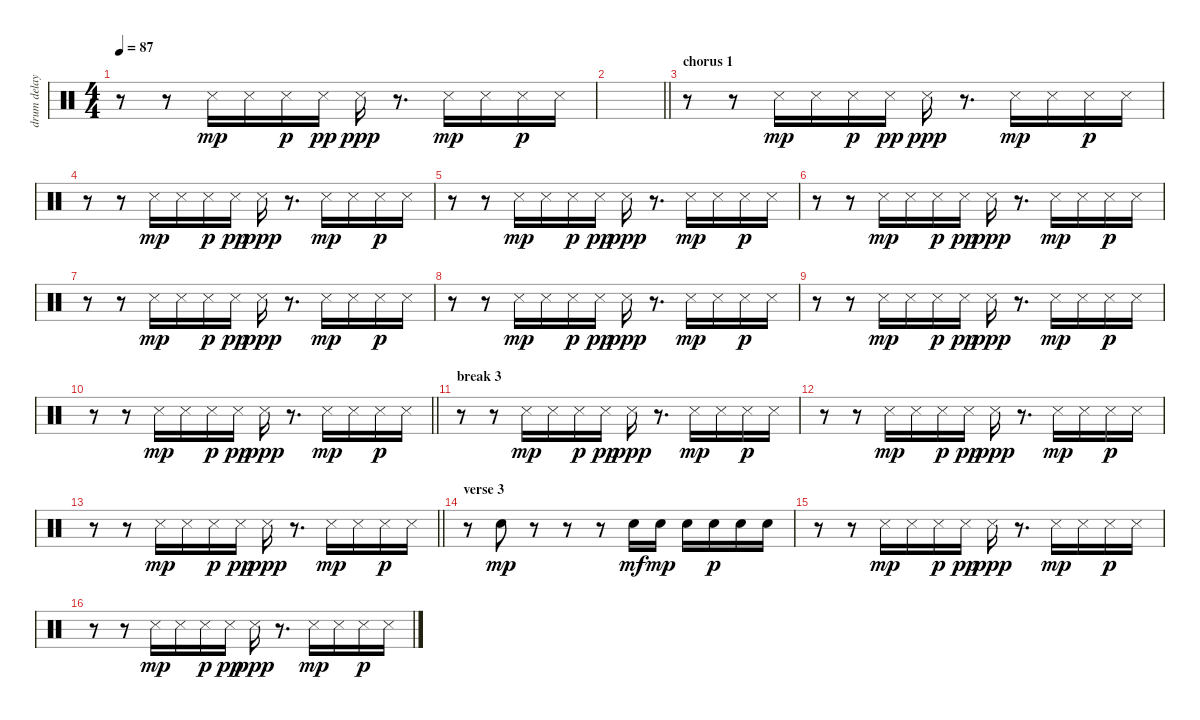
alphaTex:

\track ("drum delay" "drum delay") {instrument percussion}
\staff {score}
\articulation defaults
\ts (4 4)
\tempo 87
\clef neutral
\ks c
r.8{dy p} r.8 "Snare (side stick) 3".16{dy mp} "Snare (side stick) 3".16 "Snare (side stick) 3".16{dy p} "Snare (side stick) 3".16{dy pp} "Snare (side stick) 3".16{dy ppp} r.8{d} "Snare (side stick) 3".16{dy mp} "Snare (side stick) 3".16 "Snare (side stick) 3".16{dy p} "Snare (side stick) 3".16 |
\barLineRight lightlight
|
\section ("" "chorus 1")
r.8 r.8 "Snare (side stick) 3".16{dy mp} "Snare (side stick) 3".16 "Snare (side stick) 3".16{dy p} "Snare (side stick) 3".16{dy pp} "Snare (side stick) 3".16{dy ppp} r.8{d} "Snare (side stick) 3".16{dy mp} "Snare (side stick) 3".16 "Snare (side stick) 3".16{dy p} "Snare (side stick) 3".16 |
r.8 r.8 "Snare (side stick) 3".16{dy mp} "Snare (side stick) 3".16 "Snare (side stick) 3".16{dy p} "Snare (side stick) 3".16{dy pp} "Snare (side stick) 3".16{dy ppp} r.8{d} "Snare (side stick) 3".16{dy mp} "Snare (side stick) 3".16 "Snare (side stick) 3".16{dy p} "Snare (side stick) 3".16 |
r.8 r.8 "Snare (side stick) 3".16{dy mp} "Snare (side stick) 3".16 "Snare (side stick) 3".16{dy p} "Snare (side stick) 3".16{dy pp} "Snare (side stick) 3".16{dy ppp} r.8{d} "Snare (side stick) 3".16{dy mp} "Snare (side stick) 3".16 "Snare (side stick) 3".16{dy p} "Snare (side stick) 3".16 |
r.8 r.8 "Snare (side stick) 3".16{dy mp} "Snare (side stick) 3".16 "Snare (side stick) 3".16{dy p} "Snare (side stick) 3".16{dy pp} "Snare (side stick) 3".16{dy ppp} r.8{d} "Snare (side stick) 3".16{dy mp} "Snare (side stick) 3".16 "Snare (side stick) 3".16{dy p} "Snare (side stick) 3".16 |
r.8 r.8 "Snare (side stick) 3".16{dy mp} "Snare (side stick) 3".16 "Snare (side stick) 3".16{dy p} "Snare (side stick) 3".16{dy pp} "Snare (side stick) 3".16{dy ppp} r.8{d} "Snare (side stick) 3".16{dy mp} "Snare (side stick) 3".16 "Snare (side stick) 3".16{dy p} "Snare (side stick) 3".16 |
r.8 r.8 "Snare (side stick) 3".16{dy mp} "Snare (side stick) 3".16 "Snare (side stick) 3".16{dy p} "Snare (side stick) 3".16{dy pp} "Snare (side stick) 3".16{dy ppp} r.8{d} "Snare (side stick) 3".16{dy mp} "Snare (side stick) 3".16 "Snare (side stick) 3".16{dy p} "Snare (side stick) 3".16 |
r.8 r.8 "Snare (side stick) 3".16{dy mp} "Snare (side stick) 3".16 "Snare (side stick) 3".16{dy p} "Snare (side stick) 3".16{dy pp} "Snare (side stick) 3".16{dy ppp} r.8{d} "Snare (side stick) 3".16{dy mp} "Snare (side stick) 3".16 "Snare (side stick) 3".16{dy p} "Snare (side stick) 3".16 |
\barLineRight lightlight
r.8 r.8 "Snare (side stick) 3".16{dy mp} "Snare (side stick) 3".16 "Snare (side stick) 3".16{dy p} "Snare (side stick) 3".16{dy pp} "Snare (side stick) 3".16{dy ppp} r.8{d} "Snare (side stick) 3".16{dy mp} "Snare (side stick) 3".16 "Snare (side stick) 3".16{dy p} "Snare (side stick) 3".16 |
\section ("" "break 3")
r.8{volume 6} r.8 "Snare (side stick) 3".16{dy mp} "Snare (side stick) 3".16 "Snare (side stick) 3".16{dy p} "Snare (side stick) 3".16{dy pp} "Snare (side stick) 3".16{dy ppp} r.8{d} "Snare (side stick) 3".16{dy mp} "Snare (side stick) 3".16 "Snare (side stick) 3".16{dy p} "Snare (side stick) 3".16 |
r.8 r.8 "Snare (side stick) 3".16{dy mp} "Snare (side stick) 3".16 "Snare (side stick) 3".16{dy p} "Snare (side stick) 3".16{dy pp} "Snare (side stick) 3".16{dy ppp} r.8{d} "Snare (side stick) 3".16{dy mp} "Snare (side stick) 3".16 "Snare (side stick) 3".16{dy p} "Snare (side stick) 3".16 |
\barLineRight lightlight
r.8 r.8 "Snare (side stick) 3".16{dy mp} "Snare (side stick) 3".16 "Snare (side stick) 3".16{dy p} "Snare (side stick) 3".16{dy pp} "Snare (side stick) 3".16{dy ppp} r.8{d} "Snare (side stick) 3".16{dy mp} "Snare (side stick) 3".16 "Snare (side stick) 3".16{dy p} "Snare (side stick) 3".16 |
\section ("" "verse 3")
r.8 "Electric Snare (hit)".8{dy mp volume 16} r.8 r.8 r.8 "Electric Snare (hit)".16{dy mf} "Electric Snare (hit)".16{dy mp} "Electric Snare (hit)".16 "Electric Snare (hit)".16{dy p} "Electric Snare (hit)".16 "Electric Snare (hit)".16 |
r.8 r.8 "Snare (side stick) 3".16{dy mp} "Snare (side stick) 3".16 "Snare (side stick) 3".16{dy p} "Snare (side stick) 3".16{dy pp} "Snare (side stick) 3".16{dy ppp} r.8{d} "Snare (side stick) 3".16{dy mp} "Snare (side stick) 3".16 "Snare (side stick) 3".16{dy p} "Snare (side stick) 3".16 |
r.8 r.8 "Snare (side stick) 3".16{dy mp} "Snare (side stick) 3".16 "Snare (side stick) 3".16{dy p} "Snare (side stick) 3".16{dy pp} "Snare (side stick) 3".16{dy ppp} r.8{d} "Snare (side stick) 3".16{dy mp} "Snare (side stick) 3".16 "Snare (side stick) 3".16{dy p} "Snare (side stick) 3".16
